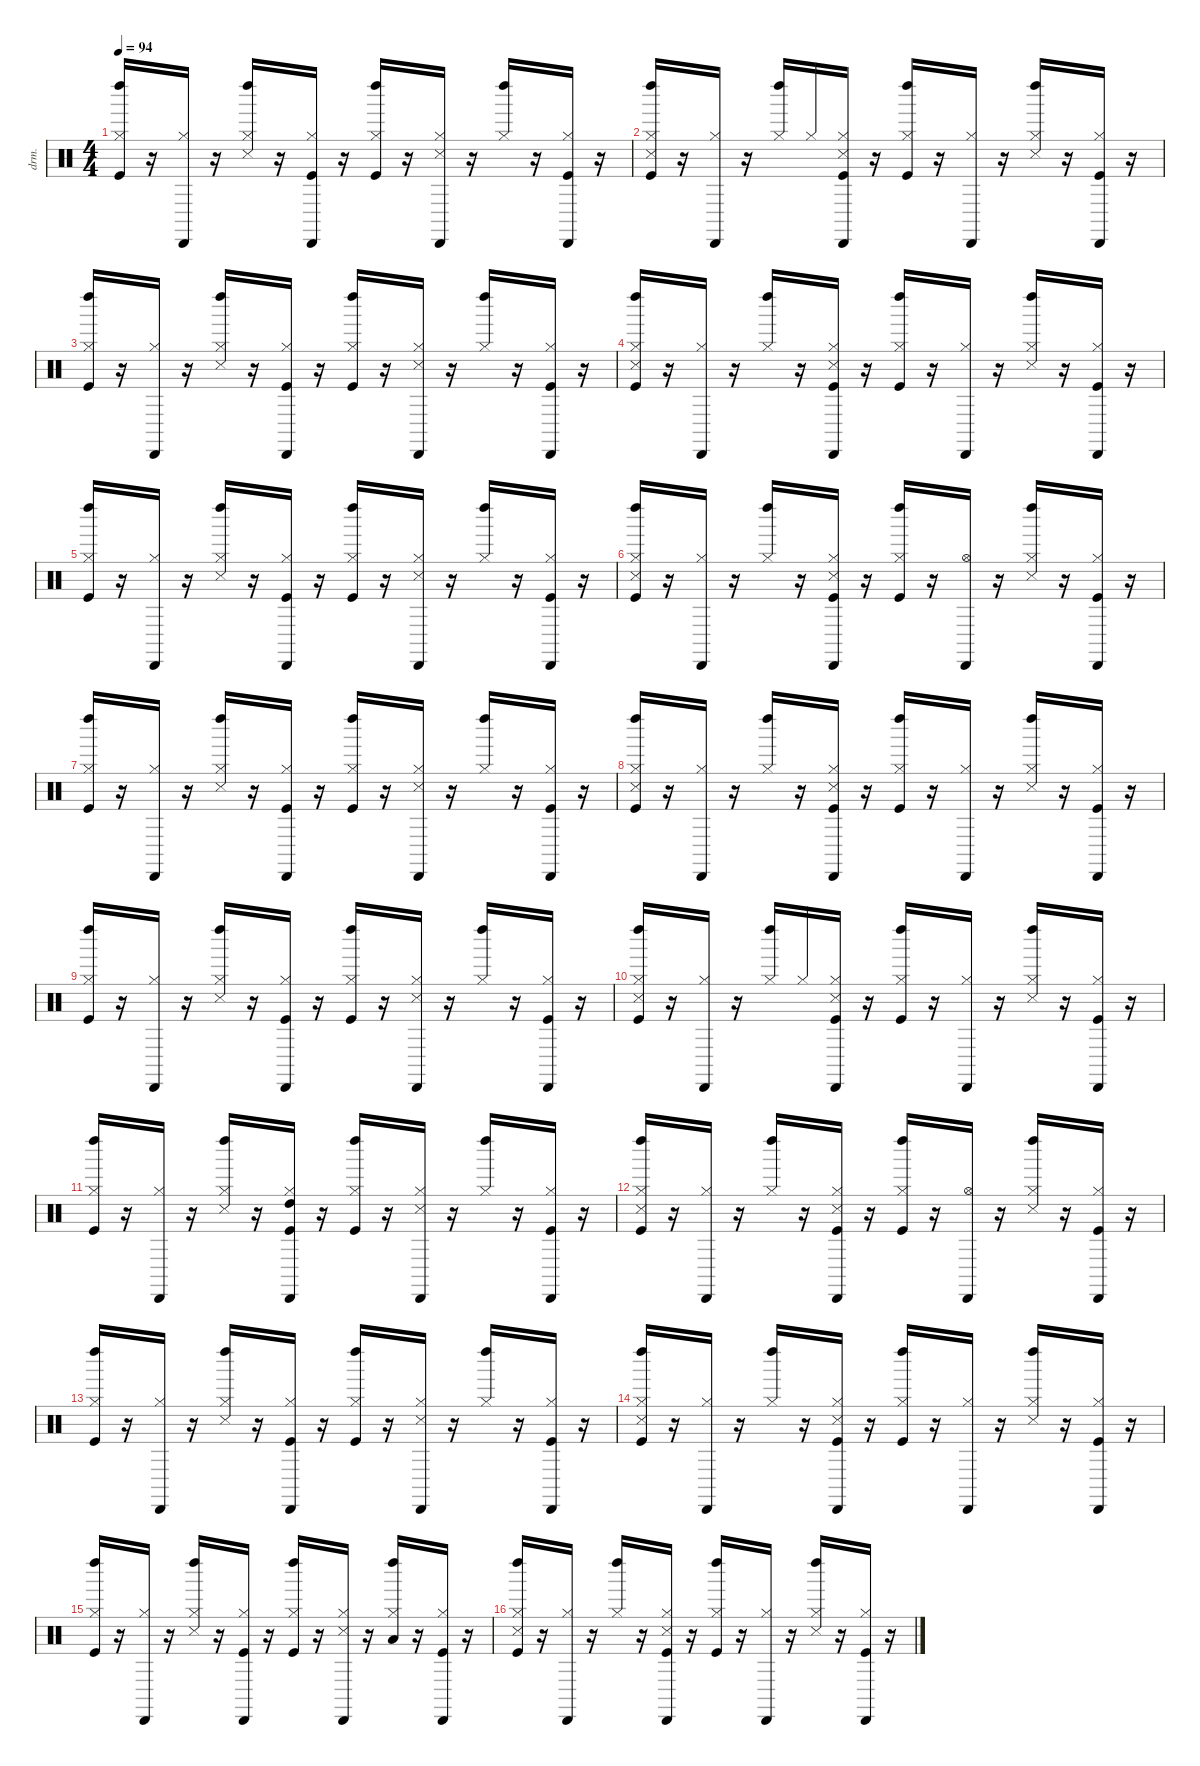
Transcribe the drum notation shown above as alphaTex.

\defaultSystemsLayout 4
\hideDynamics
\bracketExtendMode nobrackets
\otherSystemsTrackNameOrientation horizontal
\track ("Drums" "drm.") {instrument percussion}
\staff {score}
\articulation defaults
\ts (4 4)
\tempo 94
\clef neutral
\ks c
("Left Maraca (hit)" "Hi-Hat (closed)" "Kick (hit)").16{dy mf beam Up} r.16{beam Up} ("Cabasa (hit)" "Hi-Hat (closed)").16{dy p beam Up} r.16{beam Up} ("Left Maraca (hit)" "Hi-Hat (closed)" "Snare (side stick) 3").16{dy mf beam Up} r.16{beam Up} ("Cabasa (hit)" "Hi-Hat (closed)" "Kick (hit)").16{dy p beam Up} r.16{beam Up} ("Left Maraca (hit)" "Hi-Hat (closed)" "Kick (hit)").16{dy mf beam Up} r.16{beam Up} ("Cabasa (hit)" "Hi-Hat (closed)" "Snare (side stick) 3").16{dy p beam Up} r.16{beam Up} ("Left Maraca (hit)" "Hi-Hat (closed)").16{dy mf beam Up} r.16{beam Up} ("Cabasa (hit)" "Hi-Hat (closed)" "Kick (hit)").16{dy p beam Up} r.16{beam Up} |
("Left Maraca (hit)" "Hi-Hat (closed)" "Snare (side stick) 3" "Kick (hit)").16{dy mf beam Up} r.16{beam Up} ("Cabasa (hit)" "Hi-Hat (closed)").16{dy p beam Up} r.16{beam Up} ("Left Maraca (hit)" "Hi-Hat (closed)").16{dy mf beam Up} "Hi-Hat (closed)".16{beam Up} ("Cabasa (hit)" "Hi-Hat (closed)" "Snare (side stick) 3" "Kick (hit)").16{dy p beam Up} r.16{beam Up} ("Left Maraca (hit)" "Hi-Hat (closed)" "Kick (hit)").16{dy mf beam Up} r.16{beam Up} ("Cabasa (hit)" "Hi-Hat (closed)").16{dy p beam Up} r.16{beam Up} ("Left Maraca (hit)" "Hi-Hat (closed)" "Snare (side stick) 3").16{dy mf beam Up} r.16{beam Up} ("Cabasa (hit)" "Hi-Hat (closed)" "Kick (hit)").16{dy p beam Up} r.16{beam Up} |
("Left Maraca (hit)" "Hi-Hat (closed)" "Kick (hit)").16{dy mf beam Up} r.16{beam Up} ("Cabasa (hit)" "Hi-Hat (closed)").16{dy p beam Up} r.16{beam Up} ("Left Maraca (hit)" "Hi-Hat (closed)" "Snare (side stick) 3").16{dy mf beam Up} r.16{beam Up} ("Cabasa (hit)" "Hi-Hat (closed)" "Kick (hit)").16{dy p beam Up} r.16{beam Up} ("Left Maraca (hit)" "Hi-Hat (closed)" "Kick (hit)").16{dy mf beam Up} r.16{beam Up} ("Cabasa (hit)" "Hi-Hat (closed)" "Snare (side stick) 3").16{dy p beam Up} r.16{beam Up} ("Left Maraca (hit)" "Hi-Hat (closed)").16{dy mf beam Up} r.16{beam Up} ("Cabasa (hit)" "Hi-Hat (closed)" "Kick (hit)").16{dy p beam Up} r.16{beam Up} |
("Left Maraca (hit)" "Hi-Hat (closed)" "Snare (side stick) 3" "Kick (hit)").16{dy mf beam Up} r.16{beam Up} ("Cabasa (hit)" "Hi-Hat (closed)").16{dy p beam Up} r.16{beam Up} ("Left Maraca (hit)" "Hi-Hat (closed)").16{dy mf beam Up} r.16{beam Up} ("Cabasa (hit)" "Hi-Hat (closed)" "Snare (side stick) 3" "Kick (hit)").16{dy p beam Up} r.16{beam Up} ("Left Maraca (hit)" "Hi-Hat (closed)" "Kick (hit)").16{dy mf beam Up} r.16{beam Up} ("Cabasa (hit)" "Hi-Hat (closed)").16{dy p beam Up} r.16{beam Up} ("Left Maraca (hit)" "Hi-Hat (closed)" "Snare (side stick) 3").16{dy mf beam Up} r.16{beam Up} ("Cabasa (hit)" "Hi-Hat (closed)" "Kick (hit)").16{dy p beam Up} r.16{beam Up} |
("Left Maraca (hit)" "Hi-Hat (closed)" "Kick (hit)").16{dy mf beam Up} r.16{beam Up} ("Cabasa (hit)" "Hi-Hat (closed)").16{dy p beam Up} r.16{beam Up} ("Left Maraca (hit)" "Hi-Hat (closed)" "Snare (side stick) 3").16{dy mf beam Up} r.16{beam Up} ("Cabasa (hit)" "Hi-Hat (closed)" "Kick (hit)").16{dy p beam Up} r.16{beam Up} ("Left Maraca (hit)" "Hi-Hat (closed)" "Kick (hit)").16{dy mf beam Up} r.16{beam Up} ("Cabasa (hit)" "Hi-Hat (closed)" "Snare (side stick) 3").16{dy p beam Up} r.16{beam Up} ("Left Maraca (hit)" "Hi-Hat (closed)").16{dy mf beam Up} r.16{beam Up} ("Cabasa (hit)" "Hi-Hat (closed)" "Kick (hit)").16{dy p beam Up} r.16{beam Up} |
("Left Maraca (hit)" "Hi-Hat (closed)" "Snare (side stick) 3" "Kick (hit)").16{dy mf beam Up} r.16{beam Up} ("Cabasa (hit)" "Hi-Hat (closed)").16{dy p beam Up} r.16{beam Up} ("Left Maraca (hit)" "Hi-Hat (closed)").16{dy mf beam Up} r.16{beam Up} ("Cabasa (hit)" "Hi-Hat (closed)" "Snare (side stick) 3" "Kick (hit)").16{dy p beam Up} r.16{beam Up} ("Left Maraca (hit)" "Hi-Hat (closed)" "Kick (hit)").16{dy mf beam Up} r.16{beam Up} ("Cabasa (hit)" "Hi-Hat (open)").16{dy p beam Up} r.16{beam Up} ("Left Maraca (hit)" "Hi-Hat (closed)" "Snare (side stick) 3").16{dy mf beam Up} r.16{beam Up} ("Cabasa (hit)" "Hi-Hat (closed)" "Kick (hit)").16{dy p beam Up} r.16{beam Up} |
("Left Maraca (hit)" "Hi-Hat (closed)" "Kick (hit)").16{dy mf beam Up} r.16{beam Up} ("Cabasa (hit)" "Hi-Hat (closed)").16{dy p beam Up} r.16{beam Up} ("Left Maraca (hit)" "Hi-Hat (closed)" "Snare (side stick) 3").16{dy mf beam Up} r.16{beam Up} ("Cabasa (hit)" "Hi-Hat (closed)" "Kick (hit)").16{dy p beam Up} r.16{beam Up} ("Left Maraca (hit)" "Hi-Hat (closed)" "Kick (hit)").16{dy mf beam Up} r.16{beam Up} ("Cabasa (hit)" "Hi-Hat (closed)" "Snare (side stick) 3").16{dy p beam Up} r.16{beam Up} ("Left Maraca (hit)" "Hi-Hat (closed)").16{dy mf beam Up} r.16{beam Up} ("Cabasa (hit)" "Hi-Hat (closed)" "Kick (hit)").16{dy p beam Up} r.16{beam Up} |
("Left Maraca (hit)" "Hi-Hat (closed)" "Snare (side stick) 3" "Kick (hit)").16{dy mf beam Up} r.16{beam Up} ("Cabasa (hit)" "Hi-Hat (closed)").16{dy p beam Up} r.16{beam Up} ("Left Maraca (hit)" "Hi-Hat (closed)").16{dy mf beam Up} r.16{beam Up} ("Cabasa (hit)" "Hi-Hat (closed)" "Snare (side stick) 3" "Kick (hit)").16{dy p beam Up} r.16{beam Up} ("Left Maraca (hit)" "Hi-Hat (closed)" "Kick (hit)").16{dy mf beam Up} r.16{beam Up} ("Cabasa (hit)" "Hi-Hat (closed)").16{dy p beam Up} r.16{beam Up} ("Left Maraca (hit)" "Hi-Hat (closed)" "Snare (side stick) 3").16{dy mf beam Up} r.16{beam Up} ("Cabasa (hit)" "Hi-Hat (closed)" "Kick (hit)").16{dy p beam Up} r.16{beam Up} |
("Left Maraca (hit)" "Hi-Hat (closed)" "Kick (hit)").16{dy mf beam Up} r.16{beam Up} ("Cabasa (hit)" "Hi-Hat (closed)").16{dy p beam Up} r.16{beam Up} ("Left Maraca (hit)" "Hi-Hat (closed)" "Snare (side stick) 3").16{dy mf beam Up} r.16{beam Up} ("Cabasa (hit)" "Hi-Hat (closed)" "Kick (hit)").16{dy p beam Up} r.16{beam Up} ("Left Maraca (hit)" "Hi-Hat (closed)" "Kick (hit)").16{dy mf beam Up} r.16{beam Up} ("Cabasa (hit)" "Hi-Hat (closed)" "Snare (side stick) 3").16{dy p beam Up} r.16{beam Up} ("Left Maraca (hit)" "Hi-Hat (closed)").16{dy mf beam Up} r.16{beam Up} ("Cabasa (hit)" "Hi-Hat (closed)" "Kick (hit)").16{dy p beam Up} r.16{beam Up} |
("Left Maraca (hit)" "Hi-Hat (closed)" "Snare (side stick) 3" "Kick (hit)").16{dy mf beam Up} r.16{beam Up} ("Cabasa (hit)" "Hi-Hat (closed)").16{dy p beam Up} r.16{beam Up} ("Left Maraca (hit)" "Hi-Hat (closed)").16{dy mf beam Up} "Hi-Hat (closed)".16{beam Up} ("Cabasa (hit)" "Hi-Hat (closed)" "Snare (side stick) 3" "Kick (hit)").16{dy p beam Up} r.16{beam Up} ("Left Maraca (hit)" "Hi-Hat (closed)" "Kick (hit)").16{dy mf beam Up} r.16{beam Up} ("Cabasa (hit)" "Hi-Hat (closed)").16{dy p beam Up} r.16{beam Up} ("Left Maraca (hit)" "Hi-Hat (closed)" "Snare (side stick) 3").16{dy mf beam Up} r.16{beam Up} ("Cabasa (hit)" "Hi-Hat (closed)" "Kick (hit)").16{dy p beam Up} r.16{beam Up} |
("Left Maraca (hit)" "Hi-Hat (closed)" "Kick (hit)").16{dy mf beam Up} r.16{beam Up} ("Cabasa (hit)" "Hi-Hat (closed)").16{dy p beam Up} r.16{beam Up} ("Left Maraca (hit)" "Hi-Hat (closed)" "Snare (side stick) 3").16{dy mf beam Up} r.16{beam Up} ("Cabasa (hit)" "High Tom (hit)" "Hi-Hat (closed)" "Kick (hit)").16{dy p beam Up} r.16{beam Up} ("Left Maraca (hit)" "Hi-Hat (closed)" "Kick (hit)").16{dy mf beam Up} r.16{beam Up} ("Cabasa (hit)" "Hi-Hat (closed)" "Snare (side stick) 3").16{dy p beam Up} r.16{beam Up} ("Left Maraca (hit)" "Hi-Hat (closed)").16{dy mf beam Up} r.16{beam Up} ("Cabasa (hit)" "Hi-Hat (closed)" "Kick (hit)").16{dy p beam Up} r.16{beam Up} |
("Left Maraca (hit)" "Hi-Hat (closed)" "Snare (side stick) 3" "Kick (hit)").16{dy mf beam Up} r.16{beam Up} ("Cabasa (hit)" "Hi-Hat (closed)").16{dy p beam Up} r.16{beam Up} ("Left Maraca (hit)" "Hi-Hat (closed)").16{dy mf beam Up} r.16{beam Up} ("Cabasa (hit)" "Hi-Hat (closed)" "Snare (side stick) 3" "Kick (hit)").16{dy p beam Up} r.16{beam Up} ("Left Maraca (hit)" "Hi-Hat (closed)" "Kick (hit)").16{dy mf beam Up} r.16{beam Up} ("Cabasa (hit)" "Hi-Hat (open)").16{dy p beam Up} r.16{beam Up} ("Left Maraca (hit)" "Hi-Hat (closed)" "Snare (side stick) 3").16{dy mf beam Up} r.16{beam Up} ("Cabasa (hit)" "Hi-Hat (closed)" "Kick (hit)").16{dy p beam Up} r.16{beam Up} |
("Left Maraca (hit)" "Hi-Hat (closed)" "Kick (hit)").16{dy mf beam Up} r.16{beam Up} ("Cabasa (hit)" "Hi-Hat (closed)").16{dy p beam Up} r.16{beam Up} ("Left Maraca (hit)" "Hi-Hat (closed)" "Snare (side stick) 3").16{dy mf beam Up} r.16{beam Up} ("Cabasa (hit)" "Hi-Hat (closed)" "Kick (hit)").16{dy p beam Up} r.16{beam Up} ("Left Maraca (hit)" "Hi-Hat (closed)" "Kick (hit)").16{dy mf beam Up} r.16{beam Up} ("Cabasa (hit)" "Hi-Hat (closed)" "Snare (side stick) 3").16{dy p beam Up} r.16{beam Up} ("Left Maraca (hit)" "Hi-Hat (closed)").16{dy mf beam Up} r.16{beam Up} ("Cabasa (hit)" "Hi-Hat (closed)" "Kick (hit)").16{dy p beam Up} r.16{beam Up} |
("Left Maraca (hit)" "Hi-Hat (closed)" "Snare (side stick) 3" "Kick (hit)").16{dy mf beam Up} r.16{beam Up} ("Cabasa (hit)" "Hi-Hat (closed)").16{dy p beam Up} r.16{beam Up} ("Left Maraca (hit)" "Hi-Hat (closed)").16{dy mf beam Up} r.16{beam Up} ("Cabasa (hit)" "Hi-Hat (closed)" "Snare (side stick) 3" "Kick (hit)").16{dy p beam Up} r.16{beam Up} ("Left Maraca (hit)" "Hi-Hat (closed)" "Kick (hit)").16{dy mf beam Up} r.16{beam Up} ("Cabasa (hit)" "Hi-Hat (closed)").16{dy p beam Up} r.16{beam Up} ("Left Maraca (hit)" "Hi-Hat (closed)" "Snare (side stick) 3").16{dy mf beam Up} r.16{beam Up} ("Cabasa (hit)" "Hi-Hat (closed)" "Kick (hit)").16{dy p beam Up} r.16{beam Up} |
("Left Maraca (hit)" "Hi-Hat (closed)" "Kick (hit)").16{dy mf beam Up} r.16{beam Up} ("Cabasa (hit)" "Hi-Hat (closed)").16{dy p beam Up} r.16{beam Up} ("Left Maraca (hit)" "Hi-Hat (closed)" "Snare (side stick) 3").16{dy mf beam Up} r.16{beam Up} ("Cabasa (hit)" "Hi-Hat (closed)" "Kick (hit)").16{dy p beam Up} r.16{beam Up} ("Left Maraca (hit)" "Hi-Hat (closed)" "Kick (hit)").16{dy mf beam Up} r.16{beam Up} ("Cabasa (hit)" "Hi-Hat (closed)" "Snare (side stick) 3").16{dy p beam Up} r.16{beam Up} ("Left Maraca (hit)" "Low Tom (hit)" "Hi-Hat (closed)").16{dy mf beam Up} r.16{beam Up} ("Cabasa (hit)" "Hi-Hat (closed)" "Kick (hit)").16{dy p beam Up} r.16{beam Up} |
("Left Maraca (hit)" "Hi-Hat (closed)" "Snare (side stick) 3" "Kick (hit)").16{dy mf beam Up} r.16{beam Up} ("Cabasa (hit)" "Hi-Hat (closed)").16{dy p beam Up} r.16{beam Up} ("Left Maraca (hit)" "Hi-Hat (closed)").16{dy mf beam Up} r.16{beam Up} ("Cabasa (hit)" "Hi-Hat (closed)" "Snare (side stick) 3" "Kick (hit)").16{dy p beam Up} r.16{beam Up} ("Left Maraca (hit)" "Hi-Hat (closed)" "Kick (hit)").16{dy mf beam Up} r.16{beam Up} ("Cabasa (hit)" "Hi-Hat (closed)").16{dy p beam Up} r.16{beam Up} ("Left Maraca (hit)" "Hi-Hat (closed)" "Snare (side stick) 3").16{dy mf beam Up} r.16{beam Up} ("Cabasa (hit)" "Hi-Hat (closed)" "Kick (hit)").16{dy p beam Up} r.16{beam Up}
